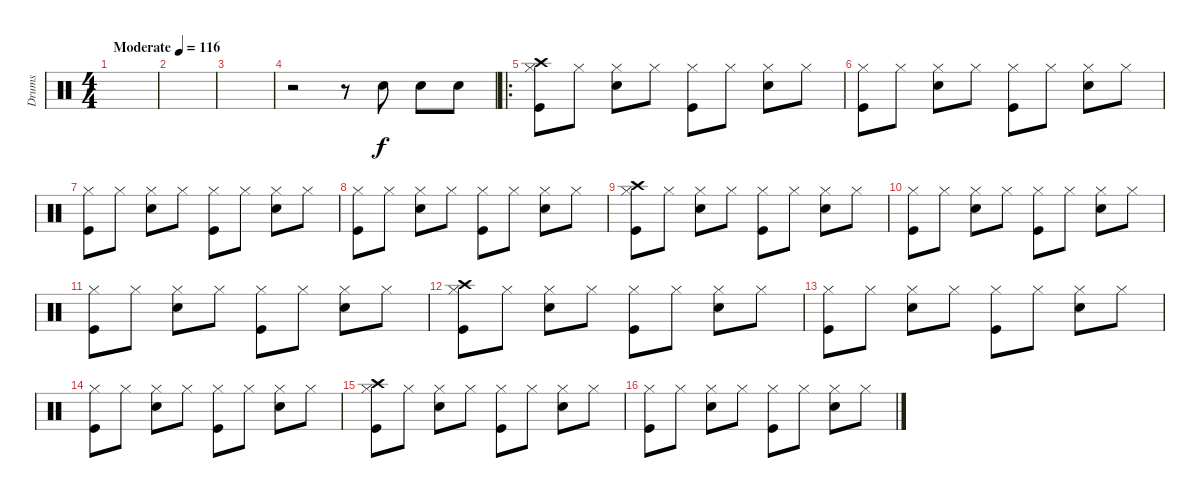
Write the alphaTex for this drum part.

\track ("Drums" "Drums") {instrument percussion}
\staff {score}
\articulation defaults
\ts (4 4)
\tempo (116 "Moderate")
\clef neutral
\ks c
|
|
|
r.2 r.8 "Snare (hit) 2".8 "Snare (hit) 2".8 "Snare (hit) 2".8 |
\ro
("Hi-Hat (closed)" "Crash high (hit)" "Kick (hit)").8 "Hi-Hat (closed)".8 ("Hi-Hat (closed)" "Snare (hit) 2").8 "Hi-Hat (closed)".8 ("Hi-Hat (closed)" "Kick (hit)").8 "Hi-Hat (closed)".8 ("Hi-Hat (closed)" "Snare (hit) 2").8 "Hi-Hat (closed)".8 |
("Hi-Hat (closed)" "Kick (hit)").8 "Hi-Hat (closed)".8 ("Hi-Hat (closed)" "Snare (hit) 2").8 "Hi-Hat (closed)".8 ("Hi-Hat (closed)" "Kick (hit)").8 "Hi-Hat (closed)".8 ("Hi-Hat (closed)" "Snare (hit) 2").8 "Hi-Hat (closed)".8 |
("Hi-Hat (closed)" "Kick (hit)").8 "Hi-Hat (closed)".8 ("Hi-Hat (closed)" "Snare (hit) 2").8 "Hi-Hat (closed)".8 ("Hi-Hat (closed)" "Kick (hit)").8 "Hi-Hat (closed)".8 ("Hi-Hat (closed)" "Snare (hit) 2").8 "Hi-Hat (closed)".8 |
("Hi-Hat (closed)" "Kick (hit)").8 "Hi-Hat (closed)".8 ("Hi-Hat (closed)" "Snare (hit) 2").8 "Hi-Hat (closed)".8 ("Hi-Hat (closed)" "Kick (hit)").8 "Hi-Hat (closed)".8 ("Hi-Hat (closed)" "Snare (hit) 2").8 "Hi-Hat (closed)".8 |
("Hi-Hat (closed)" "Crash high (hit)" "Kick (hit)").8 "Hi-Hat (closed)".8 ("Hi-Hat (closed)" "Snare (hit) 2").8 "Hi-Hat (closed)".8 ("Hi-Hat (closed)" "Kick (hit)").8 "Hi-Hat (closed)".8 ("Hi-Hat (closed)" "Snare (hit) 2").8 "Hi-Hat (closed)".8 |
("Hi-Hat (closed)" "Kick (hit)").8 "Hi-Hat (closed)".8 ("Hi-Hat (closed)" "Snare (hit) 2").8 "Hi-Hat (closed)".8 ("Hi-Hat (closed)" "Kick (hit)").8 "Hi-Hat (closed)".8 ("Hi-Hat (closed)" "Snare (hit) 2").8 "Hi-Hat (closed)".8 |
("Hi-Hat (closed)" "Kick (hit)").8 "Hi-Hat (closed)".8 ("Hi-Hat (closed)" "Snare (hit) 2").8 "Hi-Hat (closed)".8 ("Hi-Hat (closed)" "Kick (hit)").8 "Hi-Hat (closed)".8 ("Hi-Hat (closed)" "Snare (hit) 2").8 "Hi-Hat (closed)".8 |
("Hi-Hat (closed)" "Crash high (hit)" "Kick (hit)").8 "Hi-Hat (closed)".8 ("Hi-Hat (closed)" "Snare (hit) 2").8 "Hi-Hat (closed)".8 ("Hi-Hat (closed)" "Kick (hit)").8 "Hi-Hat (closed)".8 ("Hi-Hat (closed)" "Snare (hit) 2").8 "Hi-Hat (closed)".8 |
("Hi-Hat (closed)" "Kick (hit)").8 "Hi-Hat (closed)".8 ("Hi-Hat (closed)" "Snare (hit) 2").8 "Hi-Hat (closed)".8 ("Hi-Hat (closed)" "Kick (hit)").8 "Hi-Hat (closed)".8 ("Hi-Hat (closed)" "Snare (hit) 2").8 "Hi-Hat (closed)".8 |
("Hi-Hat (closed)" "Kick (hit)").8 "Hi-Hat (closed)".8 ("Hi-Hat (closed)" "Snare (hit) 2").8 "Hi-Hat (closed)".8 ("Hi-Hat (closed)" "Kick (hit)").8 "Hi-Hat (closed)".8 ("Hi-Hat (closed)" "Snare (hit) 2").8 "Hi-Hat (closed)".8 |
("Hi-Hat (closed)" "Crash high (hit)" "Kick (hit)").8 "Hi-Hat (closed)".8 ("Hi-Hat (closed)" "Snare (hit) 2").8 "Hi-Hat (closed)".8 ("Hi-Hat (closed)" "Kick (hit)").8 "Hi-Hat (closed)".8 ("Hi-Hat (closed)" "Snare (hit) 2").8 "Hi-Hat (closed)".8 |
("Hi-Hat (closed)" "Kick (hit)").8 "Hi-Hat (closed)".8 ("Hi-Hat (closed)" "Snare (hit) 2").8 "Hi-Hat (closed)".8 ("Hi-Hat (closed)" "Kick (hit)").8 "Hi-Hat (closed)".8 ("Hi-Hat (closed)" "Snare (hit) 2").8 "Hi-Hat (closed)".8
